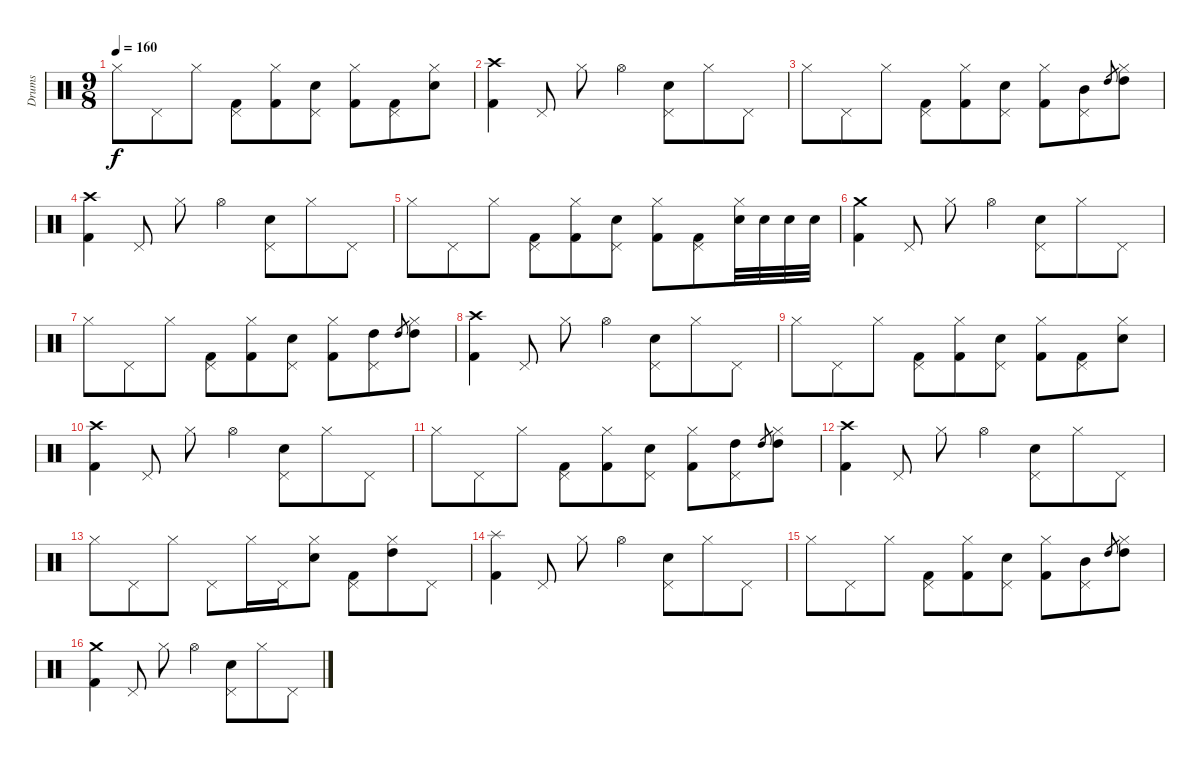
\track ("Drums" "Drums") {instrument percussion}
\staff {score}
\articulation defaults
\ts (9 8)
\tempo 160
\clef neutral
\ks c "Hi-Hat (closed)".8{dy f} "Pedal Hi-Hat (hit)".8 "Hi-Hat (closed)".8
("Pedal Hi-Hat (hit)" "Kick (hit) 2").8 ("Hi-Hat (closed)" "Kick (hit) 2").8 ("Pedal Hi-Hat (hit)" "Electric Snare (hit)").8 ("Hi-Hat (closed)" "Kick (hit) 2").8 ("Pedal Hi-Hat (hit)" "Kick (hit) 2").8 ("Hi-Hat (closed)" "Electric Snare (hit)").8 |
("Crash high (hit)" "Kick (hit) 2").4 "Pedal Hi-Hat (hit)".8 "Hi-Hat (closed)".8 "Hi-Hat (open)".4 ("Pedal Hi-Hat (hit)" "Electric Snare (hit)").8 "Hi-Hat (closed)".8 "Pedal Hi-Hat (hit)".8 |
"Hi-Hat (closed)".8 "Pedal Hi-Hat (hit)".8 "Hi-Hat (closed)".8 ("Pedal Hi-Hat (hit)" "Kick (hit) 2").8 ("Hi-Hat (closed)" "Kick (hit) 2").8 ("Pedal Hi-Hat (hit)" "Electric Snare (hit)").8 ("Hi-Hat (closed)" "Kick (hit) 2").8 ("Pedal Hi-Hat (hit)" "Mid Tom (hit)").8 "High Tom (hit)".8{gr} ("Hi-Hat (closed)" "High Tom (hit)").8 |
("Crash high (hit)" "Kick (hit) 2").4 "Pedal Hi-Hat (hit)".8 "Hi-Hat (closed)".8 "Hi-Hat (open)".4 ("Pedal Hi-Hat (hit)" "Electric Snare (hit)").8 "Hi-Hat (closed)".8 "Pedal Hi-Hat (hit)".8 |
"Hi-Hat (closed)".8 "Pedal Hi-Hat (hit)".8 "Hi-Hat (closed)".8 ("Pedal Hi-Hat (hit)" "Kick (hit) 2").8 ("Hi-Hat (closed)" "Kick (hit) 2").8 ("Pedal Hi-Hat (hit)" "Electric Snare (hit)").8 ("Hi-Hat (closed)" "Kick (hit) 2").8 ("Pedal Hi-Hat (hit)" "Kick (hit) 2").8 ("Hi-Hat (closed)" "Electric Snare (hit)").32 "Electric Snare (hit)".32 "Electric Snare (hit)".32 "Electric Snare (hit)".32 |
("Crash medium (hit)" "Kick (hit) 2").4 "Pedal Hi-Hat (hit)".8 "Hi-Hat (closed)".8 "Hi-Hat (open)".4 ("Pedal Hi-Hat (hit)" "Electric Snare (hit)").8 "Hi-Hat (closed)".8 "Pedal Hi-Hat (hit)".8 |
"Hi-Hat (closed)".8 "Pedal Hi-Hat (hit)".8 "Hi-Hat (closed)".8 ("Pedal Hi-Hat (hit)" "Kick (hit) 2").8 ("Hi-Hat (closed)" "Kick (hit) 2").8 ("Pedal Hi-Hat (hit)" "Electric Snare (hit)").8 ("Hi-Hat (closed)" "Kick (hit) 2").8 ("Pedal Hi-Hat (hit)" "High Tom (hit)").8 "High Tom (hit)".8{gr} ("Hi-Hat (closed)" "High Tom (hit)").8 |
("Crash high (hit)" "Kick (hit) 2").4 "Pedal Hi-Hat (hit)".8 "Hi-Hat (closed)".8 "Hi-Hat (open)".4 ("Pedal Hi-Hat (hit)" "Electric Snare (hit)").8 "Hi-Hat (closed)".8 "Pedal Hi-Hat (hit)".8 |
"Hi-Hat (closed)".8 "Pedal Hi-Hat (hit)".8 "Hi-Hat (closed)".8 ("Pedal Hi-Hat (hit)" "Kick (hit) 2").8 ("Hi-Hat (closed)" "Kick (hit) 2").8 ("Pedal Hi-Hat (hit)" "Electric Snare (hit)").8 ("Hi-Hat (closed)" "Kick (hit) 2").8 ("Pedal Hi-Hat (hit)" "Kick (hit) 2").8 ("Hi-Hat (closed)" "Electric Snare (hit)").8 |
("Crash high (hit)" "Kick (hit) 2").4 "Pedal Hi-Hat (hit)".8 "Hi-Hat (closed)".8 "Hi-Hat (open)".4 ("Pedal Hi-Hat (hit)" "Electric Snare (hit)").8 "Hi-Hat (closed)".8 "Pedal Hi-Hat (hit)".8 |
"Hi-Hat (closed)".8 "Pedal Hi-Hat (hit)".8 "Hi-Hat (closed)".8 ("Pedal Hi-Hat (hit)" "Kick (hit) 2").8 ("Hi-Hat (closed)" "Kick (hit) 2").8 ("Pedal Hi-Hat (hit)" "Electric Snare (hit)").8 ("Hi-Hat (closed)" "Kick (hit) 2").8 ("Pedal Hi-Hat (hit)" "High Tom (hit)").8 "High Tom (hit)".8{gr} ("Hi-Hat (closed)" "High Tom (hit)").8 |
("Crash high (hit)" "Kick (hit) 2").4 "Pedal Hi-Hat (hit)".8 "Hi-Hat (closed)".8 "Hi-Hat (open)".4 ("Pedal Hi-Hat (hit)" "Electric Snare (hit)").8 "Hi-Hat (closed)".8 "Pedal Hi-Hat (hit)".8 |
"Hi-Hat (closed)".8 "Pedal Hi-Hat (hit)".8 "Hi-Hat (closed)".8 "Pedal Hi-Hat (hit)".8 "Hi-Hat (closed)".16 "Pedal Hi-Hat (hit)".16 ("Hi-Hat (closed)" "Electric Snare (hit)").8 ("Pedal Hi-Hat (hit)" "Kick (hit) 2").8 ("Hi-Hat (closed)" "High Tom (hit)").8 "Pedal Hi-Hat (hit)".8 |
("Splash (hit)" "Kick (hit) 2").4 "Pedal Hi-Hat (hit)".8 "Hi-Hat (closed)".8 "Hi-Hat (open)".4 ("Pedal Hi-Hat (hit)" "Electric Snare (hit)").8 "Hi-Hat (closed)".8 "Pedal Hi-Hat (hit)".8 |
"Hi-Hat (closed)".8 "Pedal Hi-Hat (hit)".8 "Hi-Hat (closed)".8 ("Pedal Hi-Hat (hit)" "Kick (hit) 2").8 ("Hi-Hat (closed)" "Kick (hit) 2").8 ("Pedal Hi-Hat (hit)" "Electric Snare (hit)").8 ("Hi-Hat (closed)" "Kick (hit) 2").8 ("Pedal Hi-Hat (hit)" "Mid Tom (hit)").8 "High Tom (hit)".8{gr} ("Hi-Hat (closed)" "High Tom (hit)").8 |
("Crash medium (hit)" "Kick (hit) 2").4 "Pedal Hi-Hat (hit)".8 "Hi-Hat (closed)".8 "Hi-Hat (open)".4 ("Pedal Hi-Hat (hit)" "Electric Snare (hit)").8 "Hi-Hat (closed)".8 "Pedal Hi-Hat (hit)".8
